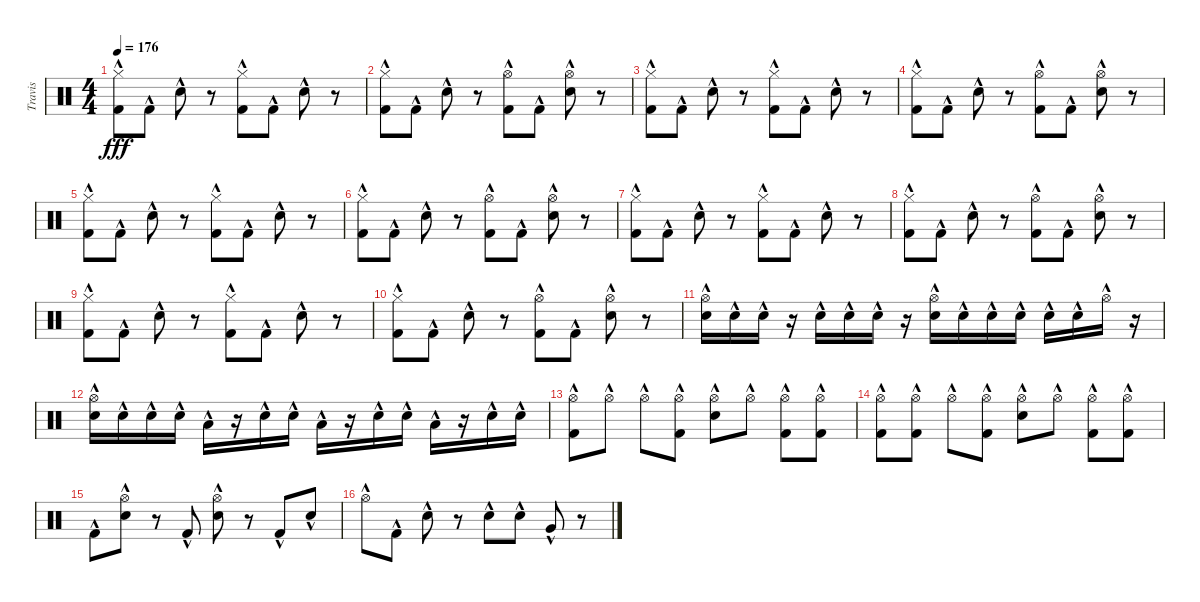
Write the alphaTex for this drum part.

\track ("Travis" "Travis") {instrument percussion}
\staff {score}
\articulation defaults
\ts (4 4)
\tempo 176
\clef neutral
\ks c
("Kick (hit) 2"{hac} "Hi-Hat (closed)"{hac}).8{dy fff} "Kick (hit) 2"{hac}.8 "Snare (hit) 2"{hac}.8 r.8 ("Kick (hit) 2"{hac} "Hi-Hat (closed)"{hac}).8 "Kick (hit) 2"{hac}.8 "Snare (hit) 2"{hac}.8 r.8 |
("Kick (hit) 2"{hac} "Hi-Hat (closed)"{hac}).8 "Kick (hit) 2"{hac}.8 "Snare (hit) 2"{hac}.8 r.8 ("Kick (hit) 2"{hac} "Hi-Hat (open)"{hac}).8 "Kick (hit) 2"{hac}.8 ("Snare (hit) 2"{hac} "Hi-Hat (open)"{hac}).8 r.8 |
("Kick (hit) 2"{hac} "Hi-Hat (closed)"{hac}).8 "Kick (hit) 2"{hac}.8 "Snare (hit) 2"{hac}.8 r.8 ("Kick (hit) 2"{hac} "Hi-Hat (closed)"{hac}).8 "Kick (hit) 2"{hac}.8 "Snare (hit) 2"{hac}.8 r.8 |
("Kick (hit) 2"{hac} "Hi-Hat (closed)"{hac}).8 "Kick (hit) 2"{hac}.8 "Snare (hit) 2"{hac}.8 r.8 ("Kick (hit) 2"{hac} "Hi-Hat (open)"{hac}).8 "Kick (hit) 2"{hac}.8 ("Snare (hit) 2"{hac} "Hi-Hat (open)"{hac}).8 r.8 |
("Kick (hit) 2"{hac} "Hi-Hat (closed)"{hac}).8 "Kick (hit) 2"{hac}.8 "Snare (hit) 2"{hac}.8 r.8 ("Kick (hit) 2"{hac} "Hi-Hat (closed)"{hac}).8 "Kick (hit) 2"{hac}.8 "Snare (hit) 2"{hac}.8 r.8 |
("Kick (hit) 2"{hac} "Hi-Hat (closed)"{hac}).8 "Kick (hit) 2"{hac}.8 "Snare (hit) 2"{hac}.8 r.8 ("Kick (hit) 2"{hac} "Hi-Hat (open)"{hac}).8 "Kick (hit) 2"{hac}.8 ("Snare (hit) 2"{hac} "Hi-Hat (open)"{hac}).8 r.8 |
("Kick (hit) 2"{hac} "Hi-Hat (closed)"{hac}).8 "Kick (hit) 2"{hac}.8 "Snare (hit) 2"{hac}.8 r.8 ("Kick (hit) 2"{hac} "Hi-Hat (closed)"{hac}).8 "Kick (hit) 2"{hac}.8 "Snare (hit) 2"{hac}.8 r.8 |
("Kick (hit) 2"{hac} "Hi-Hat (closed)"{hac}).8 "Kick (hit) 2"{hac}.8 "Snare (hit) 2"{hac}.8 r.8 ("Kick (hit) 2"{hac} "Hi-Hat (open)"{hac}).8 "Kick (hit) 2"{hac}.8 ("Snare (hit) 2"{hac} "Hi-Hat (open)"{hac}).8 r.8 |
("Kick (hit) 2"{hac} "Hi-Hat (closed)"{hac}).8 "Kick (hit) 2"{hac}.8 "Snare (hit) 2"{hac}.8 r.8 ("Kick (hit) 2"{hac} "Hi-Hat (closed)"{hac}).8 "Kick (hit) 2"{hac}.8 "Snare (hit) 2"{hac}.8 r.8 |
("Kick (hit) 2"{hac} "Hi-Hat (closed)"{hac}).8 "Kick (hit) 2"{hac}.8 "Snare (hit) 2"{hac}.8 r.8 ("Kick (hit) 2"{hac} "Hi-Hat (open)"{hac}).8 "Kick (hit) 2"{hac}.8 ("Snare (hit) 2"{hac} "Hi-Hat (open)"{hac}).8 r.8 |
("Snare (hit) 2"{hac} "Hi-Hat (open)"{hac}).16 "Snare (hit) 2"{hac}.16 "Snare (hit) 2"{hac}.16 r.16 "Snare (hit) 2"{hac}.16 "Snare (hit) 2"{hac}.16 "Snare (hit) 2"{hac}.16 r.16 ("Snare (hit) 2"{hac} "Hi-Hat (open)"{hac}).16 "Snare (hit) 2"{hac}.16 "Snare (hit) 2"{hac}.16 "Snare (hit) 2"{hac}.16 "Snare (hit) 2"{hac}.16 "Snare (hit) 2"{hac}.16 "Hi-Hat (open)"{hac}.16 r.16 |
("Snare (hit) 2"{hac} "Hi-Hat (open)"{hac}).16 "Snare (hit) 2"{hac}.16 "Snare (hit) 2"{hac}.16 "Snare (hit) 2"{hac}.16 "Low Tom (hit)"{hac}.16 r.16 "Snare (hit) 2"{hac}.16 "Snare (hit) 2"{hac}.16 "Low Tom (hit)"{hac}.16 r.16 "Snare (hit) 2"{hac}.16 "Snare (hit) 2"{hac}.16 "Low Tom (hit)"{hac}.16 r.16 "Snare (hit) 2"{hac}.16 "Snare (hit) 2"{hac}.16 |
("Kick (hit) 2"{hac} "Hi-Hat (open)"{hac}).8 "Hi-Hat (open)"{hac}.8 "Hi-Hat (open)"{hac}.8 ("Kick (hit) 2"{hac} "Hi-Hat (open)"{hac}).8 ("Snare (hit) 2"{hac} "Hi-Hat (open)"{hac}).8 "Hi-Hat (open)"{hac}.8 ("Kick (hit) 2"{hac} "Hi-Hat (open)"{hac}).8 ("Kick (hit) 2"{hac} "Hi-Hat (open)"{hac}).8 |
("Kick (hit) 2"{hac} "Hi-Hat (open)"{hac}).8 ("Kick (hit) 2"{hac} "Hi-Hat (open)"{hac}).8 "Hi-Hat (open)"{hac}.8 ("Kick (hit) 2"{hac} "Hi-Hat (open)"{hac}).8 ("Snare (hit) 2"{hac} "Hi-Hat (open)"{hac}).8 "Hi-Hat (open)"{hac}.8 ("Kick (hit) 2"{hac} "Hi-Hat (open)"{hac}).8 ("Kick (hit) 2"{hac} "Hi-Hat (open)"{hac}).8 |
"Kick (hit) 2"{hac}.8 ("Snare (hit) 2"{hac} "Hi-Hat (open)"{hac}).8 r.8 "Kick (hit) 2"{hac}.8 ("Snare (hit) 2"{hac} "Hi-Hat (open)"{hac}).8 r.8 "Kick (hit) 2"{hac}.8 "Snare (hit) 2"{hac}.8 |
"Hi-Hat (open)"{hac}.8 "Kick (hit) 2"{hac}.8 "Snare (hit) 2"{hac}.8 r.8 "Snare (hit) 2"{hac}.8 "Snare (hit) 2"{hac}.8 "Very Low Tom (hit)"{hac}.8 r.8
